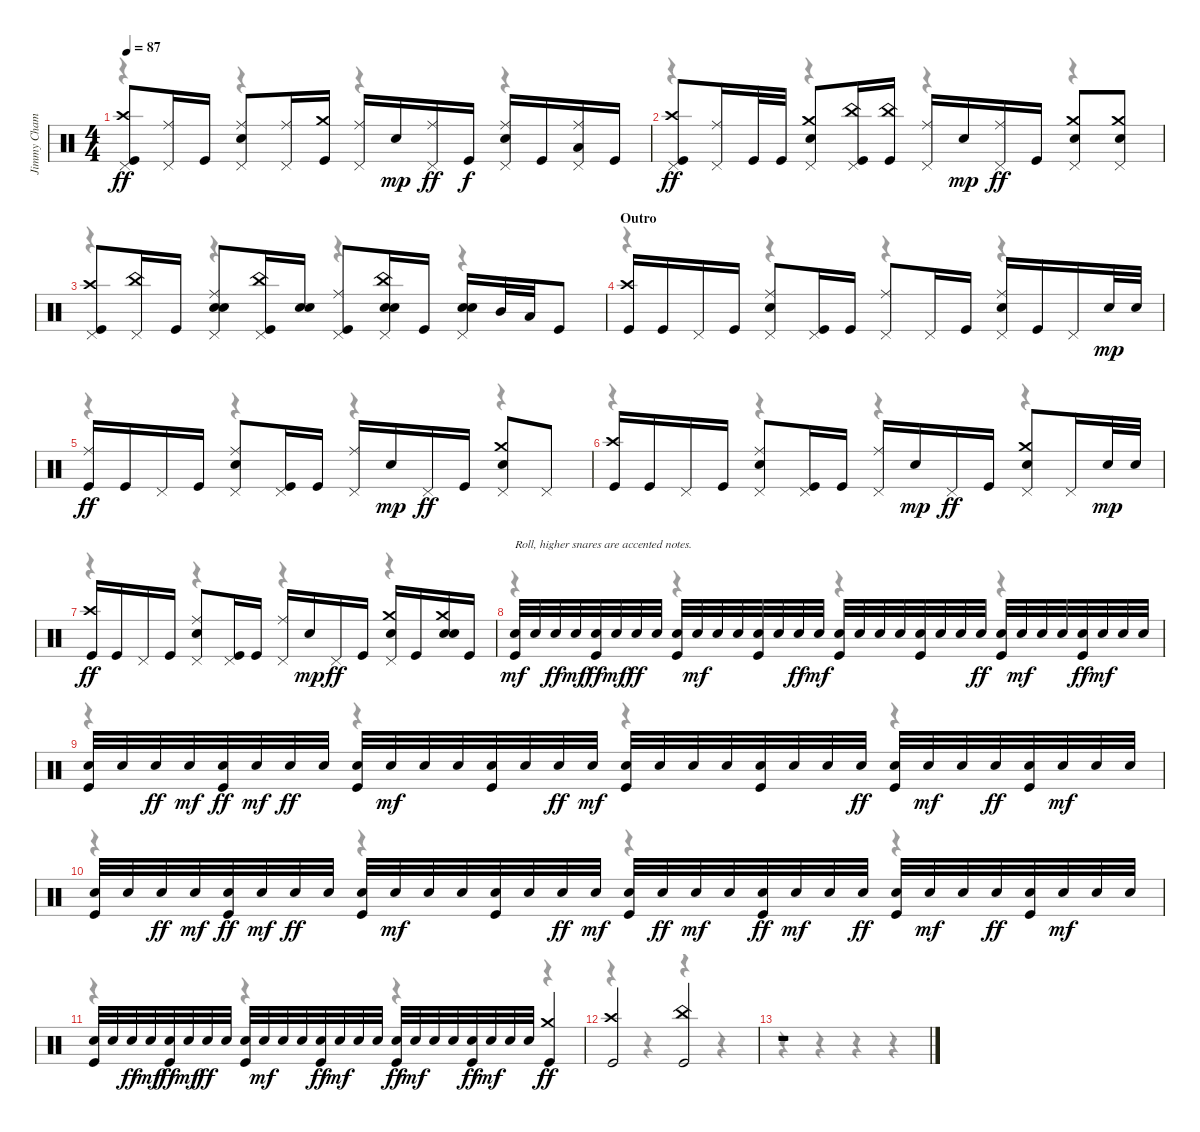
\track ("Jimmy Chamberlin - Drums" "Jimmy Cham") {instrument percussion}
\staff {score}
\articulation defaults
\voice
\ts (4 4)
\tempo 87
\clef neutral
\ks c
("Crash high (hit)" "Pedal Hi-Hat (hit)" "Kick (hit)").8{dy ff} ("Ride (middle)" "Pedal Hi-Hat (hit)").16 "Kick (hit)".16 ("Ride (middle)" "Pedal Hi-Hat (hit)" "Snare (hit) 2").8 ("Ride (middle)" "Pedal Hi-Hat (hit)").16 ("Crash medium (hit)" "Kick (hit)").16 ("Ride (middle)" "Pedal Hi-Hat (hit)").16 "Snare (hit) 2".16{dy mp} ("Ride (middle)" "Pedal Hi-Hat (hit)").16{dy ff} "Kick (hit)".16{dy f} ("Ride (middle)" "Pedal Hi-Hat (hit)" "Snare (hit) 2").16 "Kick (hit)".16 ("Ride (middle)" "Pedal Hi-Hat (hit)" "Low Tom (hit)").16 "Kick (hit)".16 |
("Crash high (hit)" "Pedal Hi-Hat (hit)" "Kick (hit)").8{dy ff} ("Ride (middle)" "Pedal Hi-Hat (hit)").16 "Kick (hit)".32 "Kick (hit)".32 ("Crash medium (hit)" "Pedal Hi-Hat (hit)" "Snare (hit) 2").8 ("China (hit)" "Pedal Hi-Hat (hit)" "Kick (hit)").16 ("China (hit)" "Kick (hit)").16 ("Ride (middle)" "Pedal Hi-Hat (hit)").16 "Snare (hit) 2".16{dy mp} ("Ride (middle)" "Pedal Hi-Hat (hit)").16{dy ff} "Kick (hit)".16 ("Crash medium (hit)" "Pedal Hi-Hat (hit)" "Snare (hit) 2").8 ("Crash medium (hit)" "Pedal Hi-Hat (hit)" "Snare (hit) 2").8 |
("Crash high (hit)" "Pedal Hi-Hat (hit)" "Kick (hit)").8 ("China (hit)" "Pedal Hi-Hat (hit)").16 "Kick (hit)".16 ("Ride (middle)" "Pedal Hi-Hat (hit)" "Snare (hit) 2" "Snare (hit) 2").8 ("China (hit)" "Pedal Hi-Hat (hit)" "Kick (hit)").16 ("Snare (hit) 2" "Snare (hit) 2").16 ("Ride (middle)" "Pedal Hi-Hat (hit)" "Kick (hit)").8 ("China (hit)" "Pedal Hi-Hat (hit)" "Snare (hit) 2" "Snare (hit) 2").16 "Kick (hit)".16 ("Pedal Hi-Hat (hit)" "Snare (hit) 2" "Snare (hit) 2").16 "Mid Tom (hit)".32 "Low Tom (hit)".32 "Kick (hit)".8 |
\section ("" "Outro")
("Crash high (hit)" "Kick (hit)").16 "Kick (hit)".16 "Pedal Hi-Hat (hit)".16 "Kick (hit)".16 ("Ride (middle)" "Pedal Hi-Hat (hit)" "Snare (hit) 2").8 ("Pedal Hi-Hat (hit)" "Kick (hit)").16 "Kick (hit)".16 ("Ride (middle)" "Pedal Hi-Hat (hit)").8 "Pedal Hi-Hat (hit)".16 "Kick (hit)".16 ("Ride (middle)" "Pedal Hi-Hat (hit)" "Snare (hit) 2").16 "Kick (hit)".16 "Pedal Hi-Hat (hit)".16 "Snare (hit) 2".32{dy mp} "Snare (hit) 2".32 |
("Ride (middle)" "Kick (hit)").16{dy ff} "Kick (hit)".16 "Pedal Hi-Hat (hit)".16 "Kick (hit)".16 ("Ride (middle)" "Pedal Hi-Hat (hit)" "Snare (hit) 2").8 ("Pedal Hi-Hat (hit)" "Kick (hit)").16 "Kick (hit)".16 ("Ride (middle)" "Pedal Hi-Hat (hit)").16 "Snare (hit) 2".16{dy mp} "Pedal Hi-Hat (hit)".16{dy ff} "Kick (hit)".16 ("Crash medium (hit)" "Pedal Hi-Hat (hit)" "Snare (hit) 2").8 "Pedal Hi-Hat (hit)".8 |
("Crash high (hit)" "Kick (hit)").16 "Kick (hit)".16 "Pedal Hi-Hat (hit)".16 "Kick (hit)".16 ("Ride (middle)" "Pedal Hi-Hat (hit)" "Snare (hit) 2").8 ("Pedal Hi-Hat (hit)" "Kick (hit)").16 "Kick (hit)".16 ("Ride (middle)" "Pedal Hi-Hat (hit)").16 "Snare (hit) 2".16{dy mp} "Pedal Hi-Hat (hit)".16{dy ff} "Kick (hit)".16 ("Crash medium (hit)" "Pedal Hi-Hat (hit)" "Snare (hit) 2").8 "Pedal Hi-Hat (hit)".16 "Snare (hit) 2".32{dy mp} "Snare (hit) 2".32 |
("Crash high (hit)" "Kick (hit)").16{dy ff} "Kick (hit)".16 "Pedal Hi-Hat (hit)".16 "Kick (hit)".16 ("Ride (middle)" "Pedal Hi-Hat (hit)" "Snare (hit) 2").8 ("Pedal Hi-Hat (hit)" "Kick (hit)").16 "Kick (hit)".16 ("Ride (middle)" "Pedal Hi-Hat (hit)").16 "Snare (hit) 2".16{dy mp} "Pedal Hi-Hat (hit)".16{dy ff} "Kick (hit)".16 ("Crash medium (hit)" "Pedal Hi-Hat (hit)" "Snare (hit) 2").16 "Kick (hit)".16 ("Crash medium (hit)" "Snare (hit) 2" "Snare (hit) 2").16 "Kick (hit)".16 |
("Snare (hit) 2" "Kick (hit)").32{txt "Roll, higher snares are accented notes." dy mf} "Snare (hit) 2".32 "Snare (hit) 2".32{dy ff} "Snare (hit) 2".32{dy mf} ("Snare (hit) 2" "Kick (hit)").32{dy ff} "Snare (hit) 2".32{dy mf} "Snare (hit) 2".32{dy ff} "Snare (hit) 2".32 ("Snare (hit) 2" "Kick (hit)").32 "Snare (hit) 2".32{dy mf} "Snare (hit) 2".32 "Snare (hit) 2".32 ("Snare (hit) 2" "Kick (hit)").32 "Snare (hit) 2".32 "Snare (hit) 2".32{dy ff} "Snare (hit) 2".32{dy mf} ("Snare (hit) 2" "Kick (hit)").32 "Snare (hit) 2".32 "Snare (hit) 2".32 "Snare (hit) 2".32 ("Snare (hit) 2" "Kick (hit)").32 "Snare (hit) 2".32 "Snare (hit) 2".32 "Snare (hit) 2".32{dy ff} ("Snare (hit) 2" "Kick (hit)").32 "Snare (hit) 2".32{dy mf} "Snare (hit) 2".32 "Snare (hit) 2".32 ("Snare (hit) 2" "Kick (hit)").32{dy ff} "Snare (hit) 2".32{dy mf} "Snare (hit) 2".32 "Snare (hit) 2".32 |
("Snare (hit) 2" "Kick (hit)").32 "Snare (hit) 2".32 "Snare (hit) 2".32{dy ff} "Snare (hit) 2".32{dy mf} ("Snare (hit) 2" "Kick (hit)").32{dy ff} "Snare (hit) 2".32{dy mf} "Snare (hit) 2".32{dy ff} "Snare (hit) 2".32 ("Snare (hit) 2" "Kick (hit)").32 "Snare (hit) 2".32{dy mf} "Snare (hit) 2".32 "Snare (hit) 2".32 ("Snare (hit) 2" "Kick (hit)").32 "Snare (hit) 2".32 "Snare (hit) 2".32{dy ff} "Snare (hit) 2".32{dy mf} ("Snare (hit) 2" "Kick (hit)").32 "Snare (hit) 2".32 "Snare (hit) 2".32 "Snare (hit) 2".32 ("Snare (hit) 2" "Kick (hit)").32 "Snare (hit) 2".32 "Snare (hit) 2".32 "Snare (hit) 2".32{dy ff} ("Snare (hit) 2" "Kick (hit)").32 "Snare (hit) 2".32{dy mf} "Snare (hit) 2".32 "Snare (hit) 2".32{dy ff} ("Snare (hit) 2" "Kick (hit)").32 "Snare (hit) 2".32{dy mf} "Snare (hit) 2".32 "Snare (hit) 2".32 |
("Snare (hit) 2" "Kick (hit)").32 "Snare (hit) 2".32 "Snare (hit) 2".32{dy ff} "Snare (hit) 2".32{dy mf} ("Snare (hit) 2" "Kick (hit)").32{dy ff} "Snare (hit) 2".32{dy mf} "Snare (hit) 2".32{dy ff} "Snare (hit) 2".32 ("Snare (hit) 2" "Kick (hit)").32 "Snare (hit) 2".32{dy mf} "Snare (hit) 2".32 "Snare (hit) 2".32 ("Snare (hit) 2" "Kick (hit)").32 "Snare (hit) 2".32 "Snare (hit) 2".32{dy ff} "Snare (hit) 2".32{dy mf} ("Snare (hit) 2" "Kick (hit)").32 "Snare (hit) 2".32{dy ff} "Snare (hit) 2".32{dy mf} "Snare (hit) 2".32 ("Snare (hit) 2" "Kick (hit)").32{dy ff} "Snare (hit) 2".32{dy mf} "Snare (hit) 2".32 "Snare (hit) 2".32{dy ff} ("Snare (hit) 2" "Kick (hit)").32 "Snare (hit) 2".32{dy mf} "Snare (hit) 2".32 "Snare (hit) 2".32{dy ff} ("Snare (hit) 2" "Kick (hit)").32 "Snare (hit) 2".32{dy mf} "Snare (hit) 2".32 "Snare (hit) 2".32 |
("Snare (hit) 2" "Kick (hit)").32 "Snare (hit) 2".32 "Snare (hit) 2".32{dy ff} "Snare (hit) 2".32{dy mf} ("Snare (hit) 2" "Kick (hit)").32{dy ff} "Snare (hit) 2".32{dy mf} "Snare (hit) 2".32{dy ff} "Snare (hit) 2".32 ("Snare (hit) 2" "Kick (hit)").32 "Snare (hit) 2".32{dy mf} "Snare (hit) 2".32 "Snare (hit) 2".32 ("Snare (hit) 2" "Kick (hit)").32{dy ff} "Snare (hit) 2".32{dy mf} "Snare (hit) 2".32 "Snare (hit) 2".32 ("Snare (hit) 2" "Kick (hit)").32{dy ff} "Snare (hit) 2".32{dy mf} "Snare (hit) 2".32 "Snare (hit) 2".32 ("Snare (hit) 2" "Kick (hit)").32{dy ff} "Snare (hit) 2".32{dy mf} "Snare (hit) 2".32 "Snare (hit) 2".32 ("Crash medium (hit)" "Kick (hit)").4{dy ff} |
("Crash high (hit)" "Kick (hit)").2 ("China (hit)" "Kick (hit)").2 |
r.1
\voice
\clef neutral
\ottava regular
\simile none
\ks c
r.4{dy f} r.4 r.4 r.4 |
r.4 r.4 r.4 r.4 |
r.4 r.4 r.4 r.4 |
r.4 r.4 r.4 r.4 |
r.4 r.4 r.4 r.4 |
r.4 r.4 r.4 r.4 |
r.4 r.4 r.4 r.4 |
r.4 r.4 r.4 r.4 |
r.4 r.4 r.4 r.4 |
r.4 r.4 r.4 r.4 |
r.4 r.4 r.4 r.4 |
r.4 r.4 r.4 r.4 |
r.4 r.4 r.4 r.4
